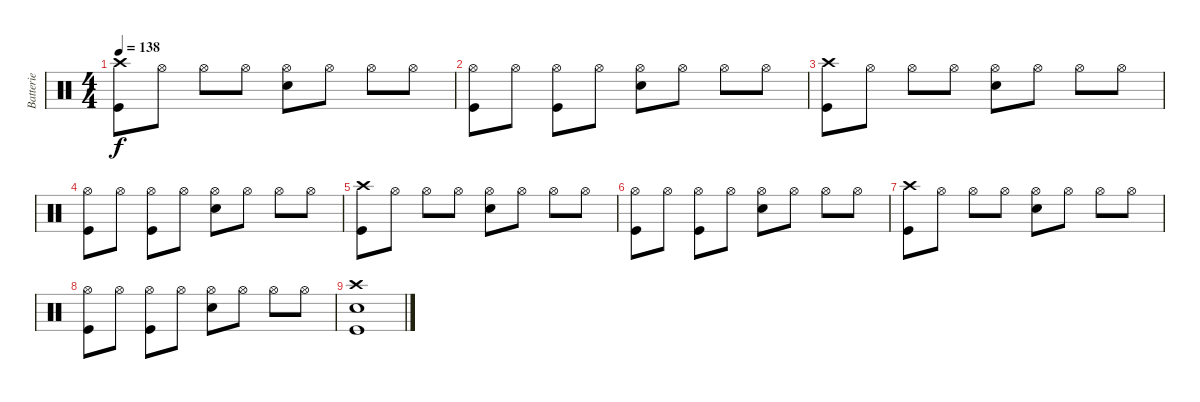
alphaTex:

\track ("Batterie" "Batterie") {instrument percussion}
\staff {score}
\articulation defaults
\ts (4 4)
\tempo 138
\clef neutral
\ks c
("Crash high (hit)" "Kick (hit)").8{dy f} "Hi-Hat (open)".8 "Hi-Hat (open)".8 "Hi-Hat (open)".8 ("Hi-Hat (open)" "Snare (hit) 2").8 "Hi-Hat (open)".8 "Hi-Hat (open)".8 "Hi-Hat (open)".8 |
("Hi-Hat (open)" "Kick (hit)").8 "Hi-Hat (open)".8 ("Hi-Hat (open)" "Kick (hit)").8 "Hi-Hat (open)".8 ("Hi-Hat (open)" "Snare (hit) 2").8 "Hi-Hat (open)".8 "Hi-Hat (open)".8 "Hi-Hat (open)".8 |
("Crash high (hit)" "Kick (hit)").8 "Hi-Hat (open)".8 "Hi-Hat (open)".8 "Hi-Hat (open)".8 ("Hi-Hat (open)" "Snare (hit) 2").8 "Hi-Hat (open)".8 "Hi-Hat (open)".8 "Hi-Hat (open)".8 |
("Hi-Hat (open)" "Kick (hit)").8 "Hi-Hat (open)".8 ("Hi-Hat (open)" "Kick (hit)").8 "Hi-Hat (open)".8 ("Hi-Hat (open)" "Snare (hit) 2").8 "Hi-Hat (open)".8 "Hi-Hat (open)".8 "Hi-Hat (open)".8 |
("Crash high (hit)" "Kick (hit)").8 "Hi-Hat (open)".8 "Hi-Hat (open)".8 "Hi-Hat (open)".8 ("Hi-Hat (open)" "Snare (hit) 2").8 "Hi-Hat (open)".8 "Hi-Hat (open)".8 "Hi-Hat (open)".8 |
("Hi-Hat (open)" "Kick (hit)").8 "Hi-Hat (open)".8 ("Hi-Hat (open)" "Kick (hit)").8 "Hi-Hat (open)".8 ("Hi-Hat (open)" "Snare (hit) 2").8 "Hi-Hat (open)".8 "Hi-Hat (open)".8 "Hi-Hat (open)".8 |
("Crash high (hit)" "Kick (hit)").8 "Hi-Hat (open)".8 "Hi-Hat (open)".8 "Hi-Hat (open)".8 ("Hi-Hat (open)" "Snare (hit) 2").8 "Hi-Hat (open)".8 "Hi-Hat (open)".8 "Hi-Hat (open)".8 |
("Hi-Hat (open)" "Kick (hit)").8 "Hi-Hat (open)".8 ("Hi-Hat (open)" "Kick (hit)").8 "Hi-Hat (open)".8 ("Hi-Hat (open)" "Snare (hit) 2").8 "Hi-Hat (open)".8 "Hi-Hat (open)".8 "Hi-Hat (open)".8 |
("Crash high (hit)" "Snare (hit) 2" "Kick (hit)").1
